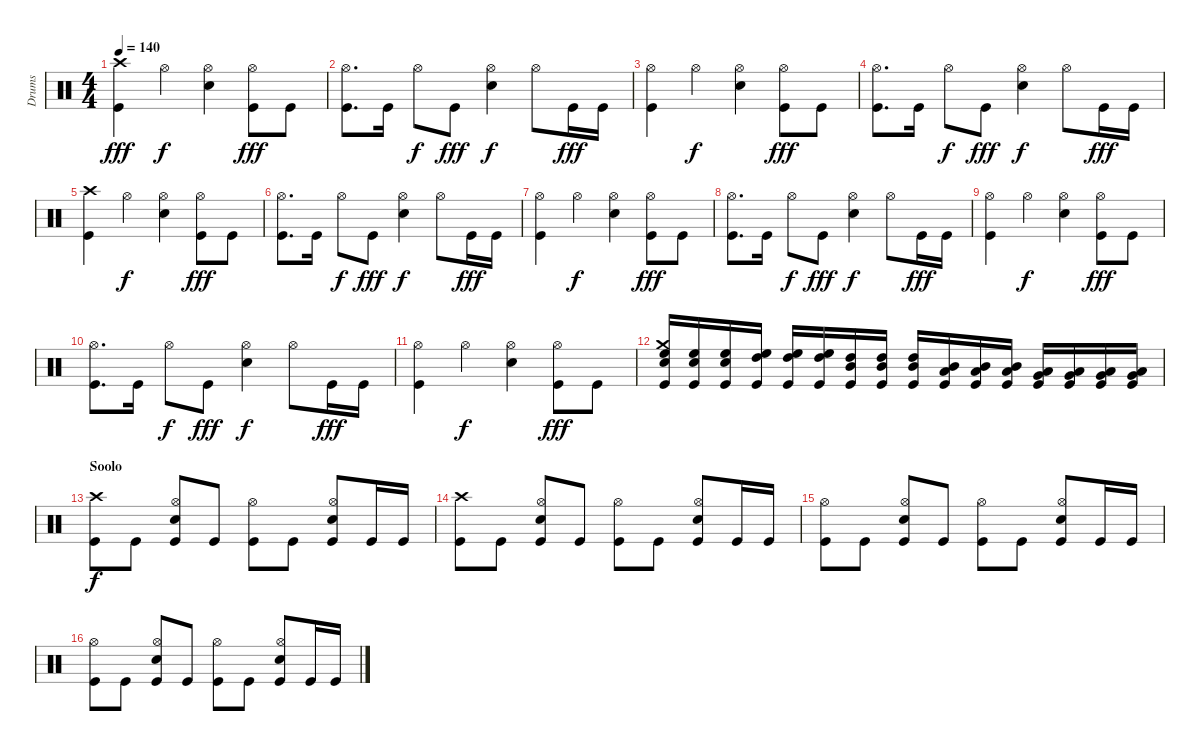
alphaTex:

\track ("Drums" "Drums") {instrument percussion}
\staff {score}
\articulation defaults
\ts (4 4)
\tempo 140
\clef neutral
\ks c
("Crash high (hit)" "Kick (hit)").4{dy fff} "Hi-Hat (open)".4{dy f} ("Hi-Hat (open)" "Snare (hit) 2").4 ("Hi-Hat (open)" "Kick (hit)").8{dy fff} "Kick (hit)".8 |
("Hi-Hat (open)" "Kick (hit)").8{d} "Kick (hit)".16 "Hi-Hat (open)".8{dy f} "Kick (hit)".8{dy fff} ("Hi-Hat (open)" "Snare (hit) 2").4{dy f} "Hi-Hat (open)".8 "Kick (hit)".16{dy fff} "Kick (hit)".16 |
("Hi-Hat (open)" "Kick (hit)").4 "Hi-Hat (open)".4{dy f} ("Hi-Hat (open)" "Snare (hit) 2").4 ("Hi-Hat (open)" "Kick (hit)").8{dy fff} "Kick (hit)".8 |
("Hi-Hat (open)" "Kick (hit)").8{d} "Kick (hit)".16 "Hi-Hat (open)".8{dy f} "Kick (hit)".8{dy fff} ("Hi-Hat (open)" "Snare (hit) 2").4{dy f} "Hi-Hat (open)".8 "Kick (hit)".16{dy fff} "Kick (hit)".16 |
("Crash high (hit)" "Kick (hit)").4 "Hi-Hat (open)".4{dy f} ("Hi-Hat (open)" "Snare (hit) 2").4 ("Hi-Hat (open)" "Kick (hit)").8{dy fff} "Kick (hit)".8 |
("Hi-Hat (open)" "Kick (hit)").8{d} "Kick (hit)".16 "Hi-Hat (open)".8{dy f} "Kick (hit)".8{dy fff} ("Hi-Hat (open)" "Snare (hit) 2").4{dy f} "Hi-Hat (open)".8 "Kick (hit)".16{dy fff} "Kick (hit)".16 |
("Hi-Hat (open)" "Kick (hit)").4 "Hi-Hat (open)".4{dy f} ("Hi-Hat (open)" "Snare (hit) 2").4 ("Hi-Hat (open)" "Kick (hit)").8{dy fff} "Kick (hit)".8 |
("Hi-Hat (open)" "Kick (hit)").8{d} "Kick (hit)".16 "Hi-Hat (open)".8{dy f} "Kick (hit)".8{dy fff} ("Hi-Hat (open)" "Snare (hit) 2").4{dy f} "Hi-Hat (open)".8 "Kick (hit)".16{dy fff} "Kick (hit)".16 |
("Hi-Hat (open)" "Kick (hit)").4 "Hi-Hat (open)".4{dy f} ("Hi-Hat (open)" "Snare (hit) 2").4 ("Hi-Hat (open)" "Kick (hit)").8{dy fff} "Kick (hit)".8 |
("Hi-Hat (open)" "Kick (hit)").8{d} "Kick (hit)".16 "Hi-Hat (open)".8{dy f} "Kick (hit)".8{dy fff} ("Hi-Hat (open)" "Snare (hit) 2").4{dy f} "Hi-Hat (open)".8 "Kick (hit)".16{dy fff} "Kick (hit)".16 |
("Hi-Hat (open)" "Kick (hit)").4 "Hi-Hat (open)".4{dy f} ("Hi-Hat (open)" "Snare (hit) 2").4 ("Hi-Hat (open)" "Kick (hit)").8{dy fff} "Kick (hit)".8 |
("Crash medium (hit)" "Snare (hit) 2" "High Floor Tom (hit)" "Kick (hit)").16 ("Snare (hit) 2" "High Floor Tom (hit)" "Kick (hit)").16 ("Snare (hit) 2" "High Floor Tom (hit)" "Kick (hit)").16 ("High Floor Tom (hit)" "High Tom (hit)" "Kick (hit)").16 ("High Floor Tom (hit)" "High Tom (hit)" "Kick (hit)").16 ("High Floor Tom (hit)" "High Tom (hit)" "Kick (hit)").16 ("High Tom (hit)" "Mid Tom (hit)" "Kick (hit)").16 ("High Tom (hit)" "Mid Tom (hit)" "Kick (hit)").16 ("High Tom (hit)" "Mid Tom (hit)" "Kick (hit)").16 ("Mid Tom (hit)" "Low Tom (hit)" "Kick (hit)").16 ("Mid Tom (hit)" "Low Tom (hit)" "Kick (hit)").16 ("Mid Tom (hit)" "Low Tom (hit)" "Kick (hit)").16 ("Low Tom (hit)" "Very Low Tom (hit)" "Kick (hit)").16 ("Low Tom (hit)" "Very Low Tom (hit)" "Kick (hit)").16 ("Very Low Tom (hit)" "Low Floor Tom (hit)" "Kick (hit)").16 ("Very Low Tom (hit)" "Low Floor Tom (hit)" "Kick (hit)").16 |
\section ("" "Soolo")
("Crash high (hit)" "Kick (hit)").8{dy f} "Kick (hit)".8 ("Hi-Hat (open)" "Snare (hit) 2" "Kick (hit)").8 "Kick (hit)".8 ("Hi-Hat (open)" "Kick (hit)").8 "Kick (hit)".8 ("Hi-Hat (open)" "Snare (hit) 2" "Kick (hit)").8 "Kick (hit)".16 "Kick (hit)".16 |
("Crash high (hit)" "Kick (hit)").8 "Kick (hit)".8 ("Hi-Hat (open)" "Snare (hit) 2" "Kick (hit)").8 "Kick (hit)".8 ("Hi-Hat (open)" "Kick (hit)").8 "Kick (hit)".8 ("Hi-Hat (open)" "Snare (hit) 2" "Kick (hit)").8 "Kick (hit)".16 "Kick (hit)".16 |
("Hi-Hat (open)" "Kick (hit)").8 "Kick (hit)".8 ("Hi-Hat (open)" "Snare (hit) 2" "Kick (hit)").8 "Kick (hit)".8 ("Hi-Hat (open)" "Kick (hit)").8 "Kick (hit)".8 ("Hi-Hat (open)" "Snare (hit) 2" "Kick (hit)").8 "Kick (hit)".16 "Kick (hit)".16 |
("Hi-Hat (open)" "Kick (hit)").8 "Kick (hit)".8 ("Hi-Hat (open)" "Snare (hit) 2" "Kick (hit)").8 "Kick (hit)".8 ("Hi-Hat (open)" "Kick (hit)").8 "Kick (hit)".8 ("Hi-Hat (open)" "Snare (hit) 2" "Kick (hit)").8 "Kick (hit)".16 "Kick (hit)".16
